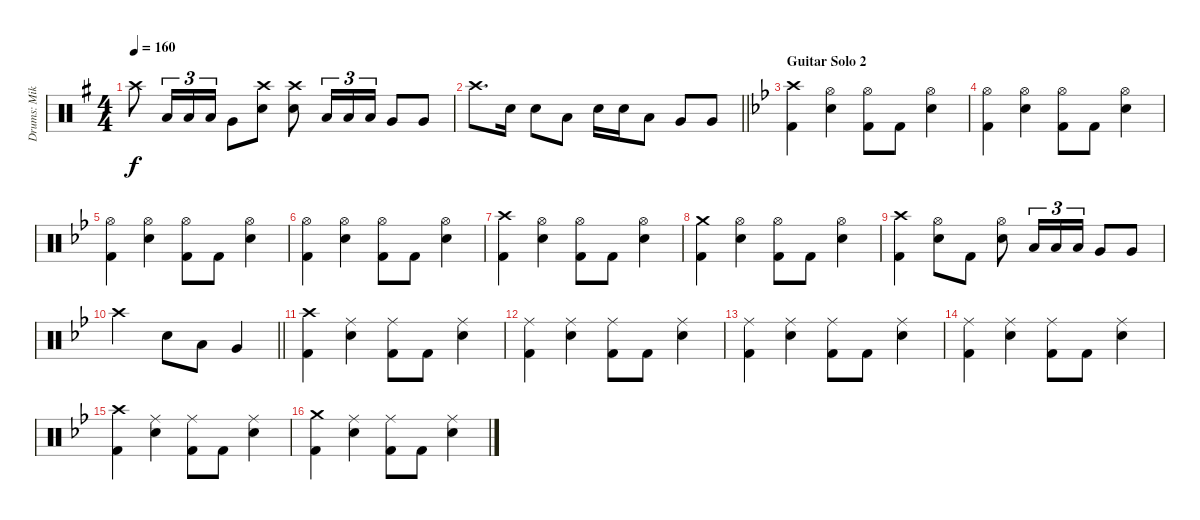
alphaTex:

\track ("Drums: Mikko Korsbäck" "Drums: Mik") {instrument percussion}
\staff {score}
\articulation defaults
\ts (4 4)
\tempo 160
\clef neutral
\ks eminor "Crash high (hit)".8{dy f} "Low Tom (hit)".16{tu (3 2)} "Low Tom (hit)".16{tu (3 2)} "Low Tom (hit)".16{tu (3 2)} "Very Low Tom (hit)".8
("Crash high (hit)" "Electric Snare (hit)").8 ("Crash high (hit)" "Electric Snare (hit)").8 "Low Tom (hit)".16{tu (3 2)} "Low Tom (hit)".16{tu (3 2)} "Low Tom (hit)".16{tu (3 2)} "Very Low Tom (hit)".8 "Very Low Tom (hit)".8 |
\barLineRight lightlight "Crash high (hit)".8{d} "Electric Snare (hit)".16 "Electric Snare (hit)".8 "Low Tom (hit)".8 "Electric Snare (hit)".16 "Electric Snare (hit)".16 "Low Tom (hit)".8 "Very Low Tom (hit)".8 "Very Low Tom (hit)".8
|
\section ("" "Guitar Solo 2")
\ks gminor
("Crash high (hit)" "Kick (hit) 2").4 ("Hi-Hat (open)" "Electric Snare (hit)").4 ("Hi-Hat (open)" "Kick (hit) 2").8 "Kick (hit) 2".8 ("Hi-Hat (open)" "Electric Snare (hit)").4 |
("Hi-Hat (open)" "Kick (hit) 2").4 ("Hi-Hat (open)" "Electric Snare (hit)").4 ("Hi-Hat (open)" "Kick (hit) 2").8 "Kick (hit) 2".8 ("Hi-Hat (open)" "Electric Snare (hit)").4 |
("Hi-Hat (open)" "Kick (hit) 2").4 ("Hi-Hat (open)" "Electric Snare (hit)").4 ("Hi-Hat (open)" "Kick (hit) 2").8 "Kick (hit) 2".8 ("Hi-Hat (open)" "Electric Snare (hit)").4 |
("Hi-Hat (open)" "Kick (hit) 2").4 ("Hi-Hat (open)" "Electric Snare (hit)").4 ("Hi-Hat (open)" "Kick (hit) 2").8 "Kick (hit) 2".8 ("Hi-Hat (open)" "Electric Snare (hit)").4 |
("Crash high (hit)" "Kick (hit) 2").4 ("Hi-Hat (open)" "Electric Snare (hit)").4 ("Hi-Hat (open)" "Kick (hit) 2").8 "Kick (hit) 2".8 ("Hi-Hat (open)" "Electric Snare (hit)").4 |
("Crash medium (hit)" "Kick (hit) 2").4 ("Hi-Hat (open)" "Electric Snare (hit)").4 ("Hi-Hat (open)" "Kick (hit) 2").8 "Kick (hit) 2".8 ("Hi-Hat (open)" "Electric Snare (hit)").4 |
("Crash high (hit)" "Kick (hit) 2").4 ("Hi-Hat (open)" "Electric Snare (hit)").8 "Kick (hit) 2".8 ("Hi-Hat (open)" "Electric Snare (hit)").8 "Low Tom (hit)".16{tu (3 2)} "Low Tom (hit)".16{tu (3 2)} "Low Tom (hit)".16{tu (3 2)} "Very Low Tom (hit)".8 "Very Low Tom (hit)".8 |
\barLineRight lightlight "Crash high (hit)".2 "Electric Snare (hit)".8 "Low Tom (hit)".8 "Very Low Tom (hit)".4
|
("Crash high (hit)" "Kick (hit) 2").4 ("Ride (middle)" "Electric Snare (hit)").4 ("Ride (middle)" "Kick (hit) 2").8 "Kick (hit) 2".8 ("Ride (middle)" "Electric Snare (hit)").4 |
("Ride (middle)" "Kick (hit) 2").4 ("Ride (middle)" "Electric Snare (hit)").4 ("Ride (middle)" "Kick (hit) 2").8 "Kick (hit) 2".8 ("Ride (middle)" "Electric Snare (hit)").4 |
("Ride (middle)" "Kick (hit) 2").4 ("Ride (middle)" "Electric Snare (hit)").4 ("Ride (middle)" "Kick (hit) 2").8 "Kick (hit) 2".8 ("Ride (middle)" "Electric Snare (hit)").4 |
("Ride (middle)" "Kick (hit) 2").4 ("Ride (middle)" "Electric Snare (hit)").4 ("Ride (middle)" "Kick (hit) 2").8 "Kick (hit) 2".8 ("Ride (middle)" "Electric Snare (hit)").4 |
("Crash high (hit)" "Kick (hit) 2").4 ("Ride (middle)" "Electric Snare (hit)").4 ("Ride (middle)" "Kick (hit) 2").8 "Kick (hit) 2".8 ("Ride (middle)" "Electric Snare (hit)").4 |
("Crash medium (hit)" "Kick (hit) 2").4 ("Ride (middle)" "Electric Snare (hit)").4 ("Ride (middle)" "Kick (hit) 2").8 "Kick (hit) 2".8 ("Ride (middle)" "Electric Snare (hit)").4
